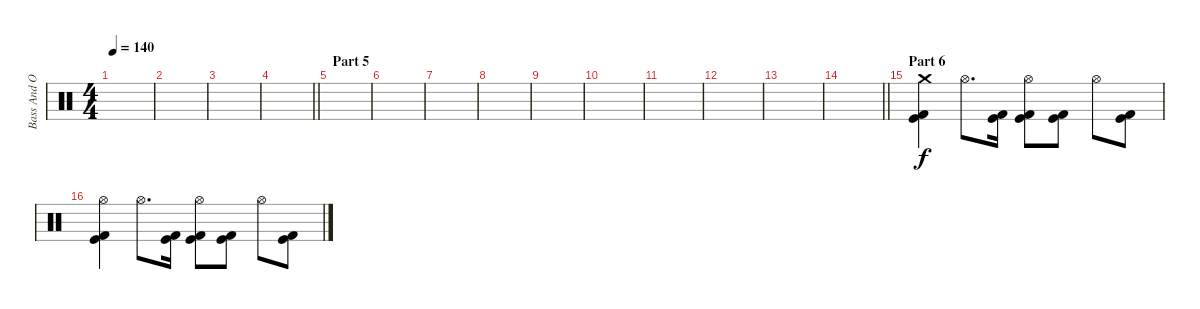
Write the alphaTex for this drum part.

\track ("Bass And Other Things" "Bass And O") {instrument percussion}
\staff {score}
\articulation defaults
\ts (4 4)
\tempo 140
\clef neutral
\ks c
|
|
|
\barLineRight lightlight
|
\section ("" "Part 5")
|
|
|
|
|
|
|
|
|
\barLineRight lightlight
|
\section ("" "Part 6")
("Kick (hit) 2" "Kick (hit)" "Crash medium (hit)").4 "Hi-Hat (open)".8{d} ("Kick (hit)" "Kick (hit) 2").16 ("Kick (hit) 2" "Kick (hit)" "Hi-Hat (open)").8 ("Kick (hit) 2" "Kick (hit)").8 "Hi-Hat (open)".8 ("Kick (hit)" "Kick (hit) 2").8 |
("Kick (hit) 2" "Kick (hit)" "Hi-Hat (open)").4 "Hi-Hat (open)".8{d} ("Kick (hit)" "Kick (hit) 2").16 ("Kick (hit) 2" "Kick (hit)" "Hi-Hat (open)").8 ("Kick (hit) 2" "Kick (hit)").8 "Hi-Hat (open)".8 ("Kick (hit)" "Kick (hit) 2").8
